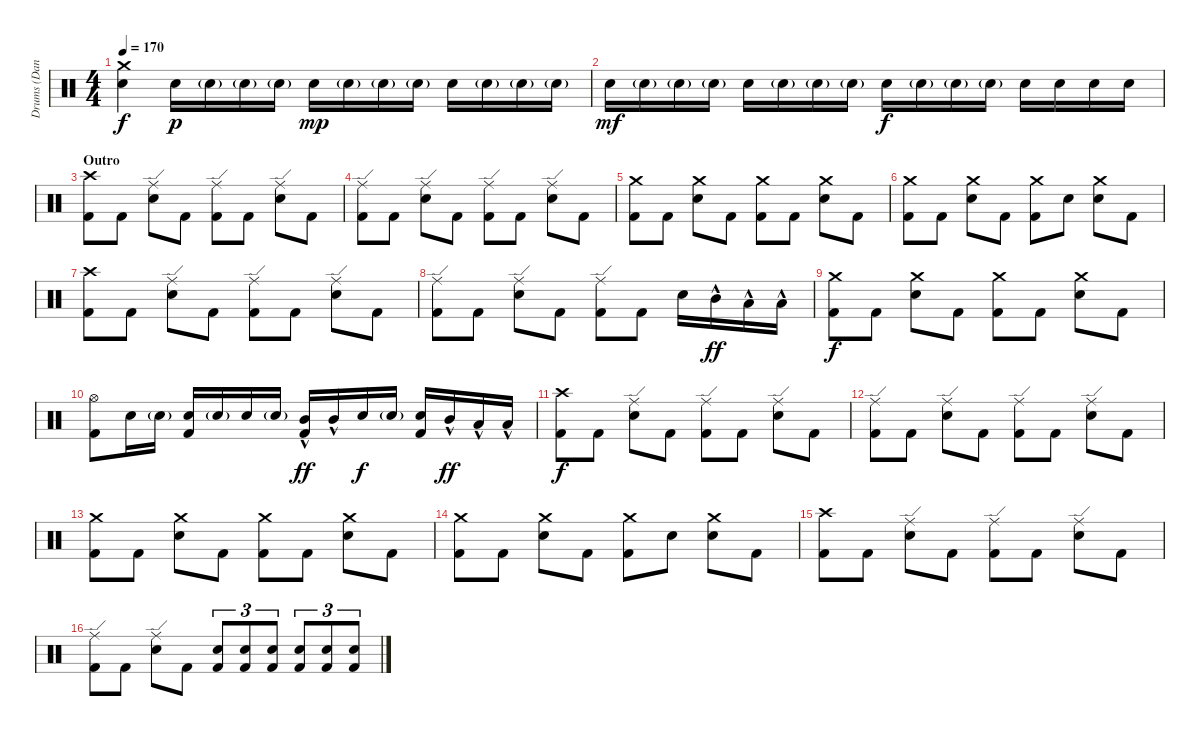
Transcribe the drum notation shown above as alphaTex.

\track ("Drums (Dan Trapp)" "Drums (Dan") {instrument percussion}
\staff {score}
\articulation defaults
\ts (4 4)
\tempo 170
\clef neutral
\ks c
("Snare (hit) 2" "Crash medium (hit)").4{dy f} "Snare (hit) 2".16{dy p} "Snare (hit) 2"{g}.16 "Snare (hit) 2"{g}.16 "Snare (hit) 2"{g}.16 "Snare (hit) 2".16{dy mp} "Snare (hit) 2"{g}.16 "Snare (hit) 2"{g}.16 "Snare (hit) 2"{g}.16 "Snare (hit) 2".16 "Snare (hit) 2"{g}.16 "Snare (hit) 2"{g}.16 "Snare (hit) 2"{g}.16 |
"Snare (hit) 2".16{dy mf} "Snare (hit) 2"{g}.16 "Snare (hit) 2"{g}.16 "Snare (hit) 2"{g}.16 "Snare (hit) 2".16 "Snare (hit) 2"{g}.16 "Snare (hit) 2"{g}.16 "Snare (hit) 2"{g}.16 "Snare (hit) 2".16{dy f} "Snare (hit) 2"{g}.16 "Snare (hit) 2"{g}.16 "Snare (hit) 2"{g}.16 "Snare (hit) 2".16 "Snare (hit) 2".16 "Snare (hit) 2".16 "Snare (hit) 2".16 |
\section ("" "Outro")
("Kick (hit) 2" "Crash high (hit)").8 "Kick (hit) 2".8 ("Snare (hit) 2" "Ride (edge)").8 "Kick (hit) 2".8 ("Kick (hit) 2" "Ride (edge)").8 "Kick (hit) 2".8 ("Snare (hit) 2" "Ride (edge)").8 "Kick (hit) 2".8 |
("Kick (hit) 2" "Ride (edge)").8 "Kick (hit) 2".8 ("Snare (hit) 2" "Ride (edge)").8 "Kick (hit) 2".8 ("Kick (hit) 2" "Ride (edge)").8 "Kick (hit) 2".8 ("Snare (hit) 2" "Ride (edge)").8 "Kick (hit) 2".8 |
("Crash medium (hit)" "Kick (hit) 2").8 "Kick (hit) 2".8 ("Snare (hit) 2" "Crash medium (hit)").8 "Kick (hit) 2".8 ("Kick (hit) 2" "Crash medium (hit)").8 "Kick (hit) 2".8 ("Snare (hit) 2" "Crash medium (hit)").8 "Kick (hit) 2".8 |
("Kick (hit) 2" "Crash medium (hit)").8 "Kick (hit) 2".8 ("Snare (hit) 2" "Crash medium (hit)").8 "Kick (hit) 2".8 ("Kick (hit) 2" "Crash medium (hit)").8 "Snare (hit) 2".8 ("Snare (hit) 2" "Crash medium (hit)").8 "Kick (hit) 2".8 |
("Kick (hit) 2" "Crash high (hit)").8 "Kick (hit) 2".8 ("Snare (hit) 2" "Ride (edge)").8 "Kick (hit) 2".8 ("Kick (hit) 2" "Ride (edge)").8 "Kick (hit) 2".8 ("Snare (hit) 2" "Ride (edge)").8 "Kick (hit) 2".8 |
("Kick (hit) 2" "Ride (edge)").8 "Kick (hit) 2".8 ("Snare (hit) 2" "Ride (edge)").8 "Kick (hit) 2".8 ("Kick (hit) 2" "Ride (edge)").8 "Kick (hit) 2".8 "Snare (hit) 2".16 "Mid Tom (hit)"{hac}.16{dy ff} "Low Tom (hit)"{hac}.16 "Low Tom (hit)"{hac}.16 |
("Crash medium (hit)" "Kick (hit) 2").8{dy f} "Kick (hit) 2".8 ("Snare (hit) 2" "Crash medium (hit)").8 "Kick (hit) 2".8 ("Kick (hit) 2" "Crash medium (hit)").8 "Kick (hit) 2".8 ("Snare (hit) 2" "Crash medium (hit)").8 "Kick (hit) 2".8 |
("Hi-Hat (open)" "Kick (hit) 2").8 "Snare (hit) 2".16 "Snare (hit) 2"{g}.16 ("Snare (hit) 2" "Kick (hit) 2").16 "Snare (hit) 2"{g}.16 "Snare (hit) 2".16 "Snare (hit) 2"{g}.16 ("Mid Tom (hit)"{hac} "Kick (hit) 2").16{dy ff} "Mid Tom (hit)"{hac}.16 "Snare (hit) 2".16{dy f} "Snare (hit) 2"{g}.16 ("Snare (hit) 2" "Kick (hit) 2").16 "Mid Tom (hit)"{hac}.16{dy ff} "Low Tom (hit)"{hac}.16 "Low Tom (hit)"{hac}.16 |
("Kick (hit) 2" "Crash high (hit)").8{dy f} "Kick (hit) 2".8 ("Snare (hit) 2" "Ride (edge)").8 "Kick (hit) 2".8 ("Kick (hit) 2" "Ride (edge)").8 "Kick (hit) 2".8 ("Snare (hit) 2" "Ride (edge)").8 "Kick (hit) 2".8 |
("Kick (hit) 2" "Ride (edge)").8 "Kick (hit) 2".8 ("Snare (hit) 2" "Ride (edge)").8 "Kick (hit) 2".8 ("Kick (hit) 2" "Ride (edge)").8 "Kick (hit) 2".8 ("Snare (hit) 2" "Ride (edge)").8 "Kick (hit) 2".8 |
("Crash medium (hit)" "Kick (hit) 2").8 "Kick (hit) 2".8 ("Snare (hit) 2" "Crash medium (hit)").8 "Kick (hit) 2".8 ("Kick (hit) 2" "Crash medium (hit)").8 "Kick (hit) 2".8 ("Snare (hit) 2" "Crash medium (hit)").8 "Kick (hit) 2".8 |
("Kick (hit) 2" "Crash medium (hit)").8 "Kick (hit) 2".8 ("Snare (hit) 2" "Crash medium (hit)").8 "Kick (hit) 2".8 ("Kick (hit) 2" "Crash medium (hit)").8 "Snare (hit) 2".8 ("Snare (hit) 2" "Crash medium (hit)").8 "Kick (hit) 2".8 |
("Kick (hit) 2" "Crash high (hit)").8 "Kick (hit) 2".8 ("Snare (hit) 2" "Ride (edge)").8 "Kick (hit) 2".8 ("Kick (hit) 2" "Ride (edge)").8 "Kick (hit) 2".8 ("Snare (hit) 2" "Ride (edge)").8 "Kick (hit) 2".8 |
("Kick (hit) 2" "Ride (edge)").8 "Kick (hit) 2".8 ("Snare (hit) 2" "Ride (edge)").8 "Kick (hit) 2".8 ("Snare (hit) 2" "Kick (hit) 2").8{tu (3 2)} ("Snare (hit) 2" "Kick (hit) 2").8{tu (3 2)} ("Snare (hit) 2" "Kick (hit) 2").8{tu (3 2)} ("Snare (hit) 2" "Kick (hit) 2").8{tu (3 2)} ("Snare (hit) 2" "Kick (hit) 2").8{tu (3 2)} ("Snare (hit) 2" "Kick (hit) 2").8{tu (3 2)}
